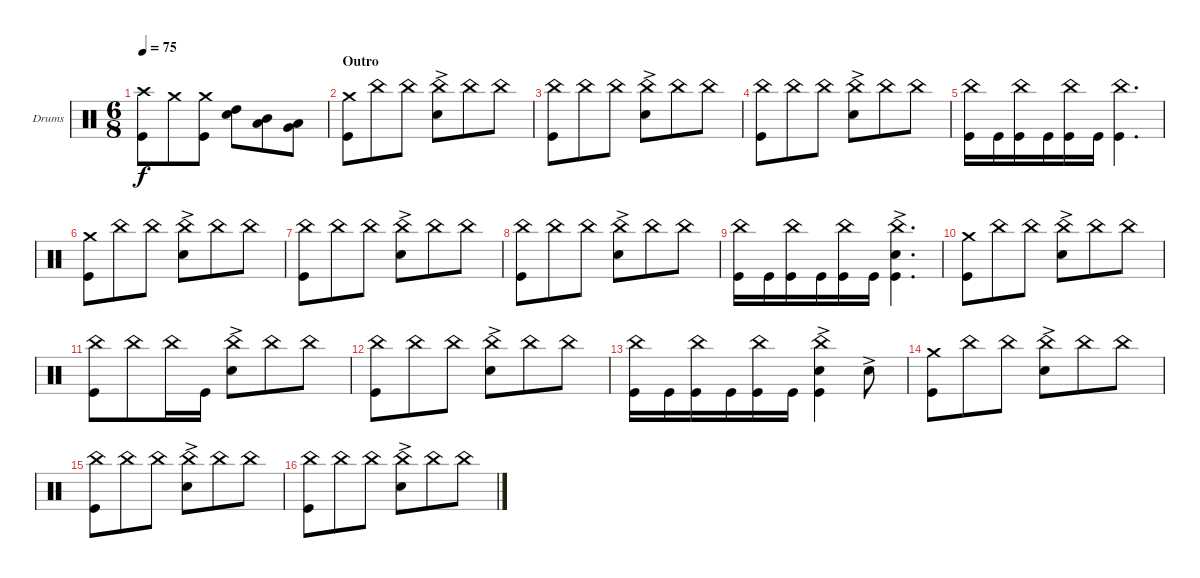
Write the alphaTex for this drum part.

\bracketExtendMode groupsimilarinstruments
\firstSystemTrackNameOrientation horizontal
\otherSystemsTrackNameOrientation horizontal
\track ("Drumkit" "Drums") {instrument percussion}
\staff {score}
\articulation defaults
\ts (6 8)
\tempo 75
\clef neutral
\ks c
("Crash high (hit)" "Kick (hit)").8{dy f} "Crash medium (hit)".8 ("Crash medium (hit)" "Kick (hit)").8 ("Snare (hit) 2" "High Tom (hit)").8 ("Mid Tom (hit)" "Low Tom (hit)").8 ("Low Tom (hit)" "Very Low Tom (hit)").8 |
\section ("" "Outro")
("Kick (hit)" "Crash medium (hit)").8 "China (hit)".8 "China (hit)".8 ("China (hit)" "Snare (hit) 2"{ac}).8 "China (hit)".8 "China (hit)".8 |
("Kick (hit)" "China (hit)").8 "China (hit)".8 "China (hit)".8 ("China (hit)" "Snare (hit) 2"{ac}).8 "China (hit)".8 "China (hit)".8 |
("Kick (hit)" "China (hit)").8 "China (hit)".8 "China (hit)".8 ("China (hit)" "Snare (hit) 2"{ac}).8 "China (hit)".8 "China (hit)".8 |
("Kick (hit)" "China (hit)").16 "Kick (hit)".16 ("Kick (hit)" "China (hit)").16 "Kick (hit)".16 ("Kick (hit)" "China (hit)").16 "Kick (hit)".16 ("Kick (hit)" "China (hit)").4{d} |
("Kick (hit)" "Crash medium (hit)").8 "China (hit)".8 "China (hit)".8 ("China (hit)" "Snare (hit) 2"{ac}).8 "China (hit)".8 "China (hit)".8 |
("Kick (hit)" "China (hit)").8 "China (hit)".8 "China (hit)".8 ("China (hit)" "Snare (hit) 2"{ac}).8 "China (hit)".8 "China (hit)".8 |
("Kick (hit)" "China (hit)").8 "China (hit)".8 "China (hit)".8 ("China (hit)" "Snare (hit) 2"{ac}).8 "China (hit)".8 "China (hit)".8 |
("Kick (hit)" "China (hit)").16 "Kick (hit)".16 ("Kick (hit)" "China (hit)").16 "Kick (hit)".16 ("Kick (hit)" "China (hit)").16 "Kick (hit)".16 ("Kick (hit)" "China (hit)" "Snare (hit) 2"{ac}).4{d} |
("Kick (hit)" "Crash medium (hit)").8 "China (hit)".8 "China (hit)".8 ("China (hit)" "Snare (hit) 2"{ac}).8 "China (hit)".8 "China (hit)".8 |
("Kick (hit)" "China (hit)").8 "China (hit)".8 "China (hit)".16 "Kick (hit)".16 ("China (hit)" "Snare (hit) 2"{ac}).8 "China (hit)".8 "China (hit)".8 |
("Kick (hit)" "China (hit)").8 "China (hit)".8 "China (hit)".8 ("China (hit)" "Snare (hit) 2"{ac}).8 "China (hit)".8 "China (hit)".8 |
("Kick (hit)" "China (hit)").16 "Kick (hit)".16 ("Kick (hit)" "China (hit)").16 "Kick (hit)".16 ("Kick (hit)" "China (hit)").16 "Kick (hit)".16 ("Kick (hit)" "China (hit)" "Snare (hit) 2"{ac}).4 "Snare (hit) 2"{ac}.8 |
("Kick (hit)" "Crash medium (hit)").8 "China (hit)".8 "China (hit)".8 ("China (hit)" "Snare (hit) 2"{ac}).8 "China (hit)".8 "China (hit)".8 |
("Kick (hit)" "China (hit)").8 "China (hit)".8 "China (hit)".8 ("China (hit)" "Snare (hit) 2"{ac}).8 "China (hit)".8 "China (hit)".8 |
("Kick (hit)" "China (hit)").8 "China (hit)".8 "China (hit)".8 ("China (hit)" "Snare (hit) 2"{ac}).8 "China (hit)".8 "China (hit)".8
